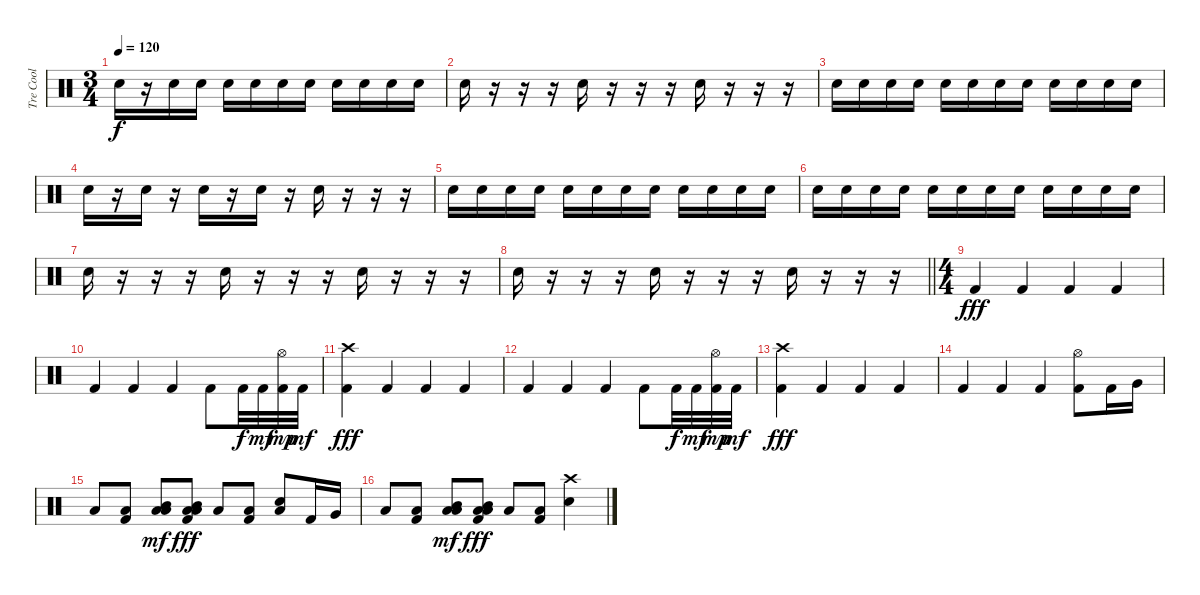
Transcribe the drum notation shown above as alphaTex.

\track ("Tre Cool" "Tre Cool") {instrument percussion}
\staff {score}
\articulation defaults
\ts (3 4)
\tempo 120
\clef neutral
\ks c "Snare (hit) 2".16{dy f}
r.16 "Snare (hit) 2".16 "Snare (hit) 2".16 "Snare (hit) 2".16 "Snare (hit) 2".16 "Snare (hit) 2".16 "Snare (hit) 2".16 "Snare (hit) 2".16 "Snare (hit) 2".16 "Snare (hit) 2".16 "Snare (hit) 2".16 |
"Snare (hit) 2".16 r.16 r.16 r.16 "Snare (hit) 2".16 r.16 r.16 r.16 "Snare (hit) 2".16 r.16 r.16 r.16 |
"Snare (hit) 2".16 "Snare (hit) 2".16 "Snare (hit) 2".16 "Snare (hit) 2".16 "Snare (hit) 2".16 "Snare (hit) 2".16 "Snare (hit) 2".16 "Snare (hit) 2".16 "Snare (hit) 2".16 "Snare (hit) 2".16 "Snare (hit) 2".16 "Snare (hit) 2".16 |
"Snare (hit) 2".16 r.16 "Snare (hit) 2".16 r.16 "Snare (hit) 2".16 r.16 "Snare (hit) 2".16 r.16 "Snare (hit) 2".16 r.16 r.16 r.16 |
"Snare (hit) 2".16 "Snare (hit) 2".16 "Snare (hit) 2".16 "Snare (hit) 2".16 "Snare (hit) 2".16 "Snare (hit) 2".16 "Snare (hit) 2".16 "Snare (hit) 2".16 "Snare (hit) 2".16 "Snare (hit) 2".16 "Snare (hit) 2".16 "Snare (hit) 2".16 |
"Snare (hit) 2".16 "Snare (hit) 2".16 "Snare (hit) 2".16 "Snare (hit) 2".16 "Snare (hit) 2".16 "Snare (hit) 2".16 "Snare (hit) 2".16 "Snare (hit) 2".16 "Snare (hit) 2".16 "Snare (hit) 2".16 "Snare (hit) 2".16 "Snare (hit) 2".16 |
"Snare (hit) 2".16 r.16 r.16 r.16 "Snare (hit) 2".16 r.16 r.16 r.16 "Snare (hit) 2".16 r.16 r.16 r.16 |
\barLineRight lightlight "Snare (hit) 2".16
r.16 r.16 r.16 "Snare (hit) 2".16 r.16 r.16 r.16 "Snare (hit) 2".16 r.16 r.16 r.16 |
\ts (4 4)
"Kick (hit) 2".4{dy fff volume 13} "Kick (hit) 2".4 "Kick (hit) 2".4 "Kick (hit) 2".4 |
"Kick (hit) 2".4 "Kick (hit) 2".4 "Kick (hit) 2".4 "Kick (hit) 2".8 "Kick (hit) 2".32{dy f} "Kick (hit) 2".32{dy mf} ("Kick (hit) 2" "Hi-Hat (open)").32{dy mp} "Kick (hit) 2".32{dy mf} |
("Kick (hit) 2" "Crash high (hit)").4{dy fff} "Kick (hit) 2".4 "Kick (hit) 2".4 "Kick (hit) 2".4 |
"Kick (hit) 2".4 "Kick (hit) 2".4 "Kick (hit) 2".4 "Kick (hit) 2".8 "Kick (hit) 2".32{dy f} "Kick (hit) 2".32{dy mf} ("Kick (hit) 2" "Hi-Hat (open)").32{dy mp} "Kick (hit) 2".32{dy mf} |
("Kick (hit) 2" "Crash high (hit)").4{dy fff} "Kick (hit) 2".4 "Kick (hit) 2".4 "Kick (hit) 2".4 |
"Kick (hit) 2".4 "Kick (hit) 2".4 "Kick (hit) 2".4 ("Kick (hit) 2" "Hi-Hat (open)").8 "Kick (hit) 2".16 "Very Low Tom (hit)".16 |
"Low Floor Tom (hit)".8 ("Low Floor Tom (hit)" "Kick (hit) 2").8 ("Mid Tom (hit)" "Low Floor Tom (hit)" "Low Tom (hit)").8{dy mf} ("Mid Tom (hit)" "Low Floor Tom (hit)" "Kick (hit) 2" "Low Tom (hit)").8{dy fff} "Low Floor Tom (hit)".8 ("Low Floor Tom (hit)" "Kick (hit) 2").8 ("Electric Snare (hit)" "Low Floor Tom (hit)").8 "Kick (hit) 2".16 "Very Low Tom (hit)".16 |
"Low Floor Tom (hit)".8 ("Low Floor Tom (hit)" "Kick (hit) 2").8 ("Mid Tom (hit)" "Low Floor Tom (hit)" "Low Tom (hit)").8{dy mf} ("Mid Tom (hit)" "Low Floor Tom (hit)" "Kick (hit) 2" "Low Tom (hit)").8{dy fff} "Low Floor Tom (hit)".8 ("Low Floor Tom (hit)" "Kick (hit) 2").8 ("Electric Snare (hit)" "Crash high (hit)").4
